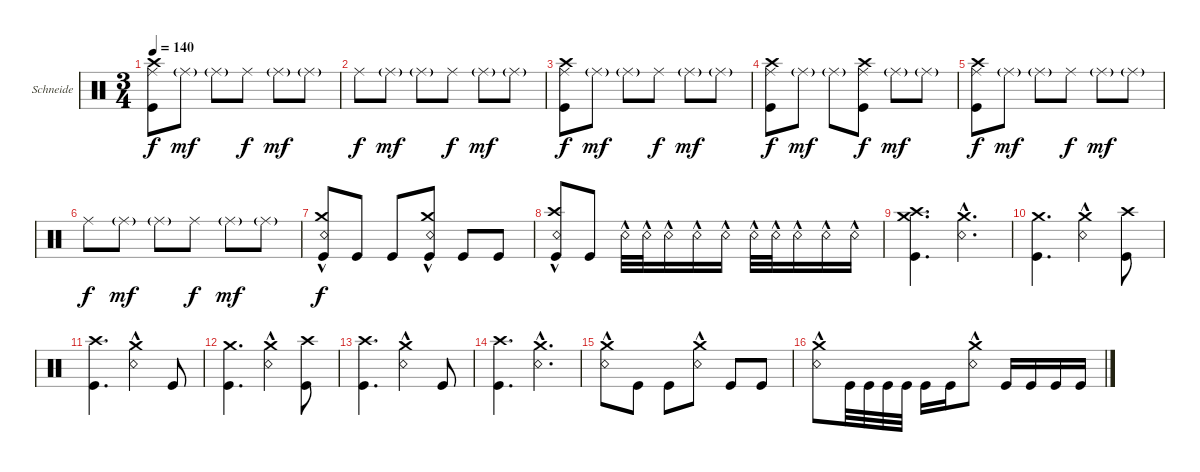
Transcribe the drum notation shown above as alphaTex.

\bracketExtendMode groupsimilarinstruments
\firstSystemTrackNameOrientation horizontal
\otherSystemsTrackNameOrientation horizontal
\track ("Christoph \"Doom\" Schneider" "Schneide") {instrument percussion}
\staff {score}
\articulation defaults
\ts (3 4)
\tempo 140
\clef neutral
\ks c
("Ride (middle)" "Kick (hit)" "Crash high (hit)").8{dy f} "Ride (middle)"{g}.8{dy mf} "Ride (middle)"{g}.8 "Ride (middle)".8{dy f} "Ride (middle)"{g}.8{dy mf} "Ride (middle)"{g}.8 |
"Ride (middle)".8{dy f} "Ride (middle)"{g}.8{dy mf} "Ride (middle)"{g}.8 "Ride (middle)".8{dy f} "Ride (middle)"{g}.8{dy mf} "Ride (middle)"{g}.8 |
("Ride (middle)" "Kick (hit)" "Crash high (hit)").8{dy f} "Ride (middle)"{g}.8{dy mf} "Ride (middle)"{g}.8 "Ride (middle)".8{dy f} "Ride (middle)"{g}.8{dy mf} "Ride (middle)"{g}.8 |
("Ride (middle)" "Kick (hit)" "Crash high (hit)").8{dy f} "Ride (middle)"{g}.8{dy mf} "Ride (middle)"{g}.8 ("Ride (middle)" "Kick (hit)" "Crash high (hit)").8{dy f} "Ride (middle)"{g}.8{dy mf} "Ride (middle)"{g}.8 |
("Ride (middle)" "Kick (hit)" "Crash high (hit)").8{dy f} "Ride (middle)"{g}.8{dy mf} "Ride (middle)"{g}.8 "Ride (middle)".8{dy f} "Ride (middle)"{g}.8{dy mf} "Ride (middle)"{g}.8 |
"Ride (middle)".8{dy f} "Ride (middle)"{g}.8{dy mf} "Ride (middle)"{g}.8 "Ride (middle)".8{dy f} "Ride (middle)"{g}.8{dy mf} "Ride (middle)"{g}.8 |
("Crash medium (hit)" "Kick (hit)" "Snare (rim shot)"{hac}).8{dy f} "Kick (hit)".8 "Kick (hit)".8 ("Crash medium (hit)" "Kick (hit)" "Snare (rim shot)"{hac}).8 "Kick (hit)".8 "Kick (hit)".8 |
("Crash high (hit)" "Kick (hit)" "Snare (rim shot)"{hac}).8 "Kick (hit)".8 "Snare (rim shot)"{hac}.32 "Snare (rim shot)"{hac}.32 "Snare (rim shot)"{hac}.16 "Snare (rim shot)"{hac}.16 "Snare (rim shot)"{hac}.16 "Snare (rim shot)"{hac}.32 "Snare (rim shot)"{hac}.32 "Snare (rim shot)"{hac}.16 "Snare (rim shot)"{hac}.16 "Snare (rim shot)"{hac}.16 |
("Crash medium (hit)" "Kick (hit)" "Crash high (hit)").4{d} ("Crash medium (hit)" "Snare (rim shot)"{hac}).4{d} |
("Crash medium (hit)" "Kick (hit)").4{d} ("Crash medium (hit)" "Snare (rim shot)"{hac}).4 ("Crash high (hit)" "Kick (hit)").8 |
("Kick (hit)" "Crash high (hit)").4{d} ("Crash medium (hit)" "Snare (rim shot)"{hac}).4 "Kick (hit)".8 |
("Crash medium (hit)" "Kick (hit)").4{d} ("Crash medium (hit)" "Snare (rim shot)"{hac}).4 ("Crash high (hit)" "Kick (hit)").8 |
("Kick (hit)" "Crash high (hit)").4{d} ("Crash medium (hit)" "Snare (rim shot)"{hac}).4 "Kick (hit)".8 |
("Kick (hit)" "Crash high (hit)").4{d} ("Crash medium (hit)" "Snare (rim shot)"{hac}).4{d} |
("Crash medium (hit)" "Snare (rim shot)"{hac}).8 "Kick (hit)".8 "Kick (hit)".8 ("Crash medium (hit)" "Snare (rim shot)"{hac}).8 "Kick (hit)".8 "Kick (hit)".8 |
("Crash medium (hit)" "Snare (rim shot)"{hac}).8 "Kick (hit)".32 "Kick (hit)".32 "Kick (hit)".32 "Kick (hit)".32 "Kick (hit)".16 "Kick (hit)".16 ("Crash medium (hit)" "Snare (rim shot)"{hac}).8 "Kick (hit)".16 "Kick (hit)".16 "Kick (hit)".16 "Kick (hit)".16
